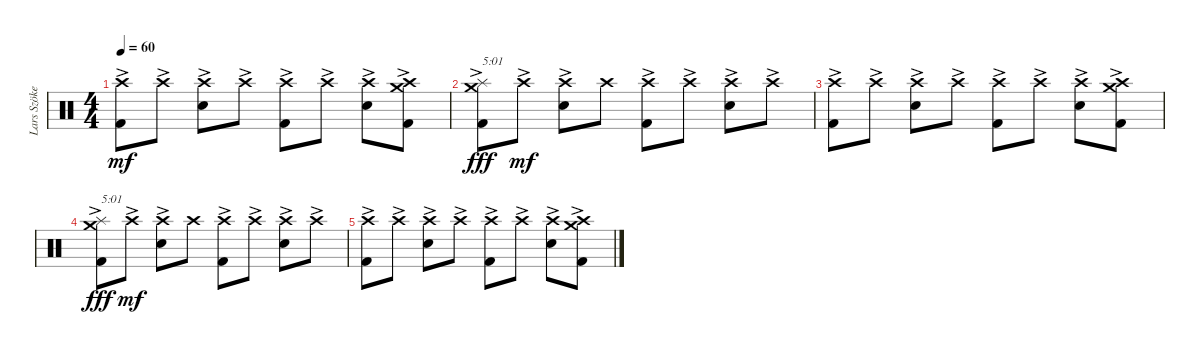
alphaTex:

\track ("Lars Szöke (Drums)" "Lars Szöke") {instrument percussion}
\staff {score}
\articulation defaults
\ts (4 4)
\tempo 60
\clef neutral
\ks c
("Kick (hit) 2" "Crash high (hit)"{ac}).8{dy mf} "Crash high (hit)"{ac}.8 ("Snare (hit) 2" "Crash high (hit)"{ac}).8 "Crash high (hit)"{ac}.8 ("Kick (hit) 2" "Crash high (hit)"{ac}).8 "Crash high (hit)"{ac}.8 ("Snare (hit) 2" "Crash high (hit)"{ac}).8 ("Kick (hit) 2" "Crash high (hit)" "Crash medium (hit)"{ac}).8 |
("Kick (hit) 2" "Splash (hit)"{ac} "Crash medium (hit)"{ac}).8{txt "5:01" dy fff} "Crash high (hit)"{ac}.8{dy mf} ("Snare (hit) 2" "Crash high (hit)"{ac}).8 "Crash high (hit)".8 ("Kick (hit) 2" "Crash high (hit)"{ac}).8 "Crash high (hit)"{ac}.8 ("Snare (hit) 2" "Crash high (hit)"{ac}).8 "Crash high (hit)"{ac}.8 |
("Kick (hit) 2" "Crash high (hit)"{ac}).8 "Crash high (hit)"{ac}.8 ("Snare (hit) 2" "Crash high (hit)"{ac}).8 "Crash high (hit)"{ac}.8 ("Kick (hit) 2" "Crash high (hit)"{ac}).8 "Crash high (hit)"{ac}.8 ("Snare (hit) 2" "Crash high (hit)"{ac}).8 ("Kick (hit) 2" "Crash high (hit)" "Crash medium (hit)"{ac}).8 |
("Kick (hit) 2" "Splash (hit)"{ac} "Crash medium (hit)"{ac}).8{txt "5:01" dy fff} "Crash high (hit)"{ac}.8{dy mf} ("Snare (hit) 2" "Crash high (hit)"{ac}).8 "Crash high (hit)".8 ("Kick (hit) 2" "Crash high (hit)"{ac}).8 "Crash high (hit)"{ac}.8 ("Snare (hit) 2" "Crash high (hit)"{ac}).8 "Crash high (hit)"{ac}.8 |
("Kick (hit) 2" "Crash high (hit)"{ac}).8 "Crash high (hit)"{ac}.8 ("Snare (hit) 2" "Crash high (hit)"{ac}).8 "Crash high (hit)"{ac}.8 ("Kick (hit) 2" "Crash high (hit)"{ac}).8 "Crash high (hit)"{ac}.8 ("Snare (hit) 2" "Crash high (hit)"{ac}).8 ("Kick (hit) 2" "Crash high (hit)" "Crash medium (hit)"{ac}).8
